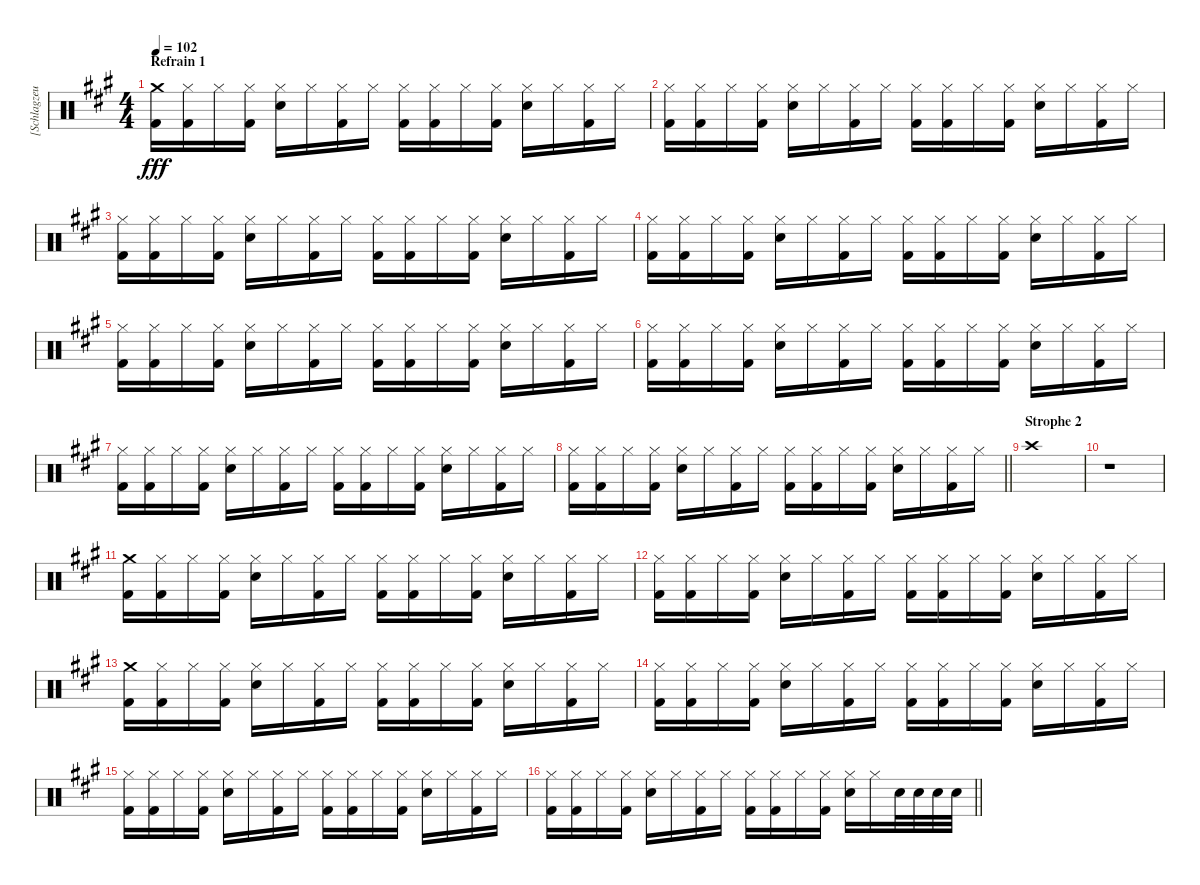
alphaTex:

\track ("[Schlagzeug]" "[Schlagzeu") {instrument percussion}
\staff {score}
\articulation defaults
\ts (4 4)
\section ("" "Refrain 1")
\tempo 102
\clef neutral
\ks f#minor
("Kick (hit) 2" "Crash medium (hit)").16{dy fff} ("Kick (hit) 2" "Hi-Hat (closed)").16 "Hi-Hat (closed)".16 ("Kick (hit) 2" "Hi-Hat (closed)").16 ("Electric Snare (hit)" "Hi-Hat (closed)").16 "Hi-Hat (closed)".16 ("Kick (hit) 2" "Hi-Hat (closed)").16 "Hi-Hat (closed)".16 ("Kick (hit) 2" "Hi-Hat (closed)").16 ("Kick (hit) 2" "Hi-Hat (closed)").16 "Hi-Hat (closed)".16 ("Kick (hit) 2" "Hi-Hat (closed)").16 ("Electric Snare (hit)" "Hi-Hat (closed)").16 "Hi-Hat (closed)".16 ("Kick (hit) 2" "Hi-Hat (closed)").16 "Hi-Hat (closed)".16 |
("Kick (hit) 2" "Hi-Hat (closed)").16 ("Kick (hit) 2" "Hi-Hat (closed)").16 "Hi-Hat (closed)".16 ("Kick (hit) 2" "Hi-Hat (closed)").16 ("Electric Snare (hit)" "Hi-Hat (closed)").16 "Hi-Hat (closed)".16 ("Kick (hit) 2" "Hi-Hat (closed)").16 "Hi-Hat (closed)".16 ("Kick (hit) 2" "Hi-Hat (closed)").16 ("Kick (hit) 2" "Hi-Hat (closed)").16 "Hi-Hat (closed)".16 ("Kick (hit) 2" "Hi-Hat (closed)").16 ("Electric Snare (hit)" "Hi-Hat (closed)").16 "Hi-Hat (closed)".16 ("Kick (hit) 2" "Hi-Hat (closed)").16 "Hi-Hat (closed)".16 |
("Kick (hit) 2" "Hi-Hat (closed)").16 ("Kick (hit) 2" "Hi-Hat (closed)").16 "Hi-Hat (closed)".16 ("Kick (hit) 2" "Hi-Hat (closed)").16 ("Electric Snare (hit)" "Hi-Hat (closed)").16 "Hi-Hat (closed)".16 ("Kick (hit) 2" "Hi-Hat (closed)").16 "Hi-Hat (closed)".16 ("Kick (hit) 2" "Hi-Hat (closed)").16 ("Kick (hit) 2" "Hi-Hat (closed)").16 "Hi-Hat (closed)".16 ("Kick (hit) 2" "Hi-Hat (closed)").16 ("Electric Snare (hit)" "Hi-Hat (closed)").16 "Hi-Hat (closed)".16 ("Kick (hit) 2" "Hi-Hat (closed)").16 "Hi-Hat (closed)".16 |
("Kick (hit) 2" "Hi-Hat (closed)").16 ("Kick (hit) 2" "Hi-Hat (closed)").16 "Hi-Hat (closed)".16 ("Kick (hit) 2" "Hi-Hat (closed)").16 ("Electric Snare (hit)" "Hi-Hat (closed)").16 "Hi-Hat (closed)".16 ("Kick (hit) 2" "Hi-Hat (closed)").16 "Hi-Hat (closed)".16 ("Kick (hit) 2" "Hi-Hat (closed)").16 ("Kick (hit) 2" "Hi-Hat (closed)").16 "Hi-Hat (closed)".16 ("Kick (hit) 2" "Hi-Hat (closed)").16 ("Electric Snare (hit)" "Hi-Hat (closed)").16 "Hi-Hat (closed)".16 ("Kick (hit) 2" "Hi-Hat (closed)").16 "Hi-Hat (closed)".16 |
("Kick (hit) 2" "Hi-Hat (closed)").16 ("Kick (hit) 2" "Hi-Hat (closed)").16 "Hi-Hat (closed)".16 ("Kick (hit) 2" "Hi-Hat (closed)").16 ("Electric Snare (hit)" "Hi-Hat (closed)").16 "Hi-Hat (closed)".16 ("Kick (hit) 2" "Hi-Hat (closed)").16 "Hi-Hat (closed)".16 ("Kick (hit) 2" "Hi-Hat (closed)").16 ("Kick (hit) 2" "Hi-Hat (closed)").16 "Hi-Hat (closed)".16 ("Kick (hit) 2" "Hi-Hat (closed)").16 ("Electric Snare (hit)" "Hi-Hat (closed)").16 "Hi-Hat (closed)".16 ("Kick (hit) 2" "Hi-Hat (closed)").16 "Hi-Hat (closed)".16 |
("Kick (hit) 2" "Hi-Hat (closed)").16 ("Kick (hit) 2" "Hi-Hat (closed)").16 "Hi-Hat (closed)".16 ("Kick (hit) 2" "Hi-Hat (closed)").16 ("Electric Snare (hit)" "Hi-Hat (closed)").16 "Hi-Hat (closed)".16 ("Kick (hit) 2" "Hi-Hat (closed)").16 "Hi-Hat (closed)".16 ("Kick (hit) 2" "Hi-Hat (closed)").16 ("Kick (hit) 2" "Hi-Hat (closed)").16 "Hi-Hat (closed)".16 ("Kick (hit) 2" "Hi-Hat (closed)").16 ("Electric Snare (hit)" "Hi-Hat (closed)").16 "Hi-Hat (closed)".16 ("Kick (hit) 2" "Hi-Hat (closed)").16 "Hi-Hat (closed)".16 |
("Kick (hit) 2" "Hi-Hat (closed)").16 ("Kick (hit) 2" "Hi-Hat (closed)").16 "Hi-Hat (closed)".16 ("Kick (hit) 2" "Hi-Hat (closed)").16 ("Electric Snare (hit)" "Hi-Hat (closed)").16 "Hi-Hat (closed)".16 ("Kick (hit) 2" "Hi-Hat (closed)").16 "Hi-Hat (closed)".16 ("Kick (hit) 2" "Hi-Hat (closed)").16 ("Kick (hit) 2" "Hi-Hat (closed)").16 "Hi-Hat (closed)".16 ("Kick (hit) 2" "Hi-Hat (closed)").16 ("Electric Snare (hit)" "Hi-Hat (closed)").16 "Hi-Hat (closed)".16 ("Kick (hit) 2" "Hi-Hat (closed)").16 "Hi-Hat (closed)".16 |
\barLineRight lightlight
("Kick (hit) 2" "Hi-Hat (closed)").16 ("Kick (hit) 2" "Hi-Hat (closed)").16 "Hi-Hat (closed)".16 ("Kick (hit) 2" "Hi-Hat (closed)").16 ("Electric Snare (hit)" "Hi-Hat (closed)").16 "Hi-Hat (closed)".16 ("Kick (hit) 2" "Hi-Hat (closed)").16 "Hi-Hat (closed)".16 ("Kick (hit) 2" "Hi-Hat (closed)").16 ("Kick (hit) 2" "Hi-Hat (closed)").16 "Hi-Hat (closed)".16 ("Kick (hit) 2" "Hi-Hat (closed)").16 ("Electric Snare (hit)" "Hi-Hat (closed)").16 "Hi-Hat (closed)".16 ("Kick (hit) 2" "Hi-Hat (closed)").16 "Hi-Hat (closed)".16 |
\section ("" "Strophe 2")
"Crash high (hit)".1 |
r.1 |
("Kick (hit) 2" "Crash medium (hit)").16 ("Kick (hit) 2" "Hi-Hat (closed)").16 "Hi-Hat (closed)".16 ("Kick (hit) 2" "Hi-Hat (closed)").16 ("Electric Snare (hit)" "Hi-Hat (closed)").16 "Hi-Hat (closed)".16 ("Kick (hit) 2" "Hi-Hat (closed)").16 "Hi-Hat (closed)".16 ("Kick (hit) 2" "Hi-Hat (closed)").16 ("Kick (hit) 2" "Hi-Hat (closed)").16 "Hi-Hat (closed)".16 ("Kick (hit) 2" "Hi-Hat (closed)").16 ("Electric Snare (hit)" "Hi-Hat (closed)").16 "Hi-Hat (closed)".16 ("Kick (hit) 2" "Hi-Hat (closed)").16 "Hi-Hat (closed)".16 |
("Kick (hit) 2" "Hi-Hat (closed)").16 ("Kick (hit) 2" "Hi-Hat (closed)").16 "Hi-Hat (closed)".16 ("Kick (hit) 2" "Hi-Hat (closed)").16 ("Electric Snare (hit)" "Hi-Hat (closed)").16 "Hi-Hat (closed)".16 ("Kick (hit) 2" "Hi-Hat (closed)").16 "Hi-Hat (closed)".16 ("Kick (hit) 2" "Hi-Hat (closed)").16 ("Kick (hit) 2" "Hi-Hat (closed)").16 "Hi-Hat (closed)".16 ("Kick (hit) 2" "Hi-Hat (closed)").16 ("Electric Snare (hit)" "Hi-Hat (closed)").16 "Hi-Hat (closed)".16 ("Kick (hit) 2" "Hi-Hat (closed)").16 "Hi-Hat (closed)".16 |
("Kick (hit) 2" "Crash medium (hit)").16 ("Kick (hit) 2" "Hi-Hat (closed)").16 "Hi-Hat (closed)".16 ("Kick (hit) 2" "Hi-Hat (closed)").16 ("Electric Snare (hit)" "Hi-Hat (closed)").16 "Hi-Hat (closed)".16 ("Kick (hit) 2" "Hi-Hat (closed)").16 "Hi-Hat (closed)".16 ("Kick (hit) 2" "Hi-Hat (closed)").16 ("Kick (hit) 2" "Hi-Hat (closed)").16 "Hi-Hat (closed)".16 ("Kick (hit) 2" "Hi-Hat (closed)").16 ("Electric Snare (hit)" "Hi-Hat (closed)").16 "Hi-Hat (closed)".16 ("Kick (hit) 2" "Hi-Hat (closed)").16 "Hi-Hat (closed)".16 |
("Kick (hit) 2" "Hi-Hat (closed)").16 ("Kick (hit) 2" "Hi-Hat (closed)").16 "Hi-Hat (closed)".16 ("Kick (hit) 2" "Hi-Hat (closed)").16 ("Electric Snare (hit)" "Hi-Hat (closed)").16 "Hi-Hat (closed)".16 ("Kick (hit) 2" "Hi-Hat (closed)").16 "Hi-Hat (closed)".16 ("Kick (hit) 2" "Hi-Hat (closed)").16 ("Kick (hit) 2" "Hi-Hat (closed)").16 "Hi-Hat (closed)".16 ("Kick (hit) 2" "Hi-Hat (closed)").16 ("Electric Snare (hit)" "Hi-Hat (closed)").16 "Hi-Hat (closed)".16 ("Kick (hit) 2" "Hi-Hat (closed)").16 "Hi-Hat (closed)".16 |
("Kick (hit) 2" "Hi-Hat (closed)").16 ("Kick (hit) 2" "Hi-Hat (closed)").16 "Hi-Hat (closed)".16 ("Kick (hit) 2" "Hi-Hat (closed)").16 ("Electric Snare (hit)" "Hi-Hat (closed)").16 "Hi-Hat (closed)".16 ("Kick (hit) 2" "Hi-Hat (closed)").16 "Hi-Hat (closed)".16 ("Kick (hit) 2" "Hi-Hat (closed)").16 ("Kick (hit) 2" "Hi-Hat (closed)").16 "Hi-Hat (closed)".16 ("Kick (hit) 2" "Hi-Hat (closed)").16 ("Electric Snare (hit)" "Hi-Hat (closed)").16 "Hi-Hat (closed)".16 ("Kick (hit) 2" "Hi-Hat (closed)").16 "Hi-Hat (closed)".16 |
\barLineRight lightlight
("Kick (hit) 2" "Hi-Hat (closed)").16 ("Kick (hit) 2" "Hi-Hat (closed)").16 "Hi-Hat (closed)".16 ("Kick (hit) 2" "Hi-Hat (closed)").16 ("Electric Snare (hit)" "Hi-Hat (closed)").16 "Hi-Hat (closed)".16 ("Kick (hit) 2" "Hi-Hat (closed)").16 "Hi-Hat (closed)".16 ("Kick (hit) 2" "Hi-Hat (closed)").16 ("Kick (hit) 2" "Hi-Hat (closed)").16 "Hi-Hat (closed)".16 ("Kick (hit) 2" "Hi-Hat (closed)").16 ("Electric Snare (hit)" "Hi-Hat (closed)").16 "Hi-Hat (closed)".16 "Electric Snare (hit)".32 "Electric Snare (hit)".32 "Electric Snare (hit)".32 "Electric Snare (hit)".32
